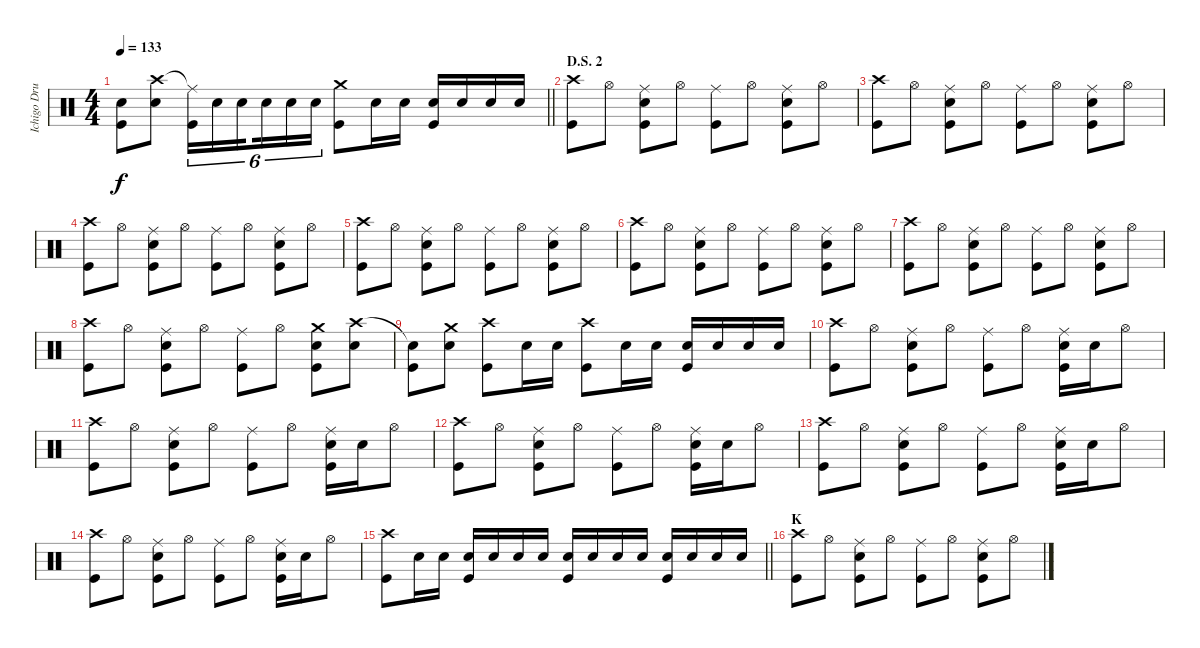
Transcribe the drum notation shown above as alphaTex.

\track ("Ichigo Drums" "Ichigo Dru") {instrument percussion}
\staff {score}
\articulation defaults
\ts (4 4)
\tempo 133
\clef neutral
\barLineRight lightlight
\ks c
("Snare (hit)"{t} "Kick (hit)").8{dy f} ("Crash high (hit)" "Snare (hit) 2").8 ("Ride (middle)"{t} "Kick (hit)").16{tu (6 4)} "Snare (hit) 2".16{tu (6 4)} "Snare (hit) 2".16{tu (6 4) beam splitsecondary} "Snare (hit) 2".16{tu (6 4)} "Snare (hit) 2".16{tu (6 4)} "Snare (hit) 2".16{tu (6 4)} ("Crash medium (hit)" "Kick (hit)").8 "Snare (hit) 2".16 "Snare (hit) 2".16 ("Snare (hit) 2" "Kick (hit)").16 "Snare (hit) 2".16 "Snare (hit) 2".16 "Snare (hit) 2".16 |
\section ("" "D.S. 2")
("Crash high (hit)" "Kick (hit)").8 "Hi-Hat (open)".8 ("Ride (middle)" "Snare (hit) 2" "Kick (hit)").8 "Hi-Hat (open)".8 ("Ride (middle)" "Kick (hit)").8 "Hi-Hat (open)".8 ("Ride (middle)" "Snare (hit) 2" "Kick (hit)").8 "Hi-Hat (open)".8 |
("Crash high (hit)" "Kick (hit)").8 "Hi-Hat (open)".8 ("Ride (middle)" "Snare (hit) 2" "Kick (hit)").8 "Hi-Hat (open)".8 ("Ride (middle)" "Kick (hit)").8 "Hi-Hat (open)".8 ("Ride (middle)" "Snare (hit) 2" "Kick (hit)").8 "Hi-Hat (open)".8 |
("Crash high (hit)" "Kick (hit)").8 "Hi-Hat (open)".8 ("Ride (middle)" "Snare (hit) 2" "Kick (hit)").8 "Hi-Hat (open)".8 ("Ride (middle)" "Kick (hit)").8 "Hi-Hat (open)".8 ("Ride (middle)" "Snare (hit) 2" "Kick (hit)").8 "Hi-Hat (open)".8 |
("Crash high (hit)" "Kick (hit)").8 "Hi-Hat (open)".8 ("Ride (middle)" "Snare (hit) 2" "Kick (hit)").8 "Hi-Hat (open)".8 ("Ride (middle)" "Kick (hit)").8 "Hi-Hat (open)".8 ("Ride (middle)" "Snare (hit) 2" "Kick (hit)").8 "Hi-Hat (open)".8 |
("Crash high (hit)" "Kick (hit)").8 "Hi-Hat (open)".8 ("Ride (middle)" "Snare (hit) 2" "Kick (hit)").8 "Hi-Hat (open)".8 ("Ride (middle)" "Kick (hit)").8 "Hi-Hat (open)".8 ("Ride (middle)" "Snare (hit) 2" "Kick (hit)").8 "Hi-Hat (open)".8 |
("Crash high (hit)" "Kick (hit)").8 "Hi-Hat (open)".8 ("Ride (middle)" "Snare (hit) 2" "Kick (hit)").8 "Hi-Hat (open)".8 ("Ride (middle)" "Kick (hit)").8 "Hi-Hat (open)".8 ("Ride (middle)" "Snare (hit) 2" "Kick (hit)").8 "Hi-Hat (open)".8 |
("Crash high (hit)" "Kick (hit)").8 "Hi-Hat (open)".8 ("Ride (middle)" "Snare (hit) 2" "Kick (hit)").8 "Hi-Hat (open)".8 ("Ride (middle)" "Kick (hit)").8 "Hi-Hat (open)".8 ("Crash medium (hit)" "Snare (hit) 2" "Kick (hit)").8 ("Crash high (hit)" "Snare (hit) 2").8 |
("Snare (hit)"{t} "Kick (hit)").8 ("Crash medium (hit)" "Snare (hit) 2").8 ("Crash high (hit)" "Kick (hit)").8 "Snare (hit) 2".16 "Snare (hit) 2".16 ("Crash high (hit)" "Kick (hit)").8 "Snare (hit) 2".16 "Snare (hit) 2".16 ("Snare (hit) 2" "Kick (hit)").16 "Snare (hit) 2".16 "Snare (hit) 2".16 "Snare (hit) 2".16 |
("Crash high (hit)" "Kick (hit)").8 "Hi-Hat (open)".8 ("Ride (middle)" "Snare (hit) 2" "Kick (hit)").8 "Hi-Hat (open)".8 ("Ride (middle)" "Kick (hit)").8 "Hi-Hat (open)".8 ("Ride (middle)" "Snare (hit) 2" "Kick (hit)").16 "Snare (hit) 2".16 "Hi-Hat (open)".8 |
("Crash high (hit)" "Kick (hit)").8 "Hi-Hat (open)".8 ("Ride (middle)" "Snare (hit) 2" "Kick (hit)").8 "Hi-Hat (open)".8 ("Ride (middle)" "Kick (hit)").8 "Hi-Hat (open)".8 ("Ride (middle)" "Snare (hit) 2" "Kick (hit)").16 "Snare (hit) 2".16 "Hi-Hat (open)".8 |
("Crash high (hit)" "Kick (hit)").8 "Hi-Hat (open)".8 ("Ride (middle)" "Snare (hit) 2" "Kick (hit)").8 "Hi-Hat (open)".8 ("Ride (middle)" "Kick (hit)").8 "Hi-Hat (open)".8 ("Ride (middle)" "Snare (hit) 2" "Kick (hit)").16 "Snare (hit) 2".16 "Hi-Hat (open)".8 |
("Crash high (hit)" "Kick (hit)").8 "Hi-Hat (open)".8 ("Ride (middle)" "Snare (hit) 2" "Kick (hit)").8 "Hi-Hat (open)".8 ("Ride (middle)" "Kick (hit)").8 "Hi-Hat (open)".8 ("Ride (middle)" "Snare (hit) 2" "Kick (hit)").16 "Snare (hit) 2".16 "Hi-Hat (open)".8 |
("Crash high (hit)" "Kick (hit)").8 "Hi-Hat (open)".8 ("Ride (middle)" "Snare (hit) 2" "Kick (hit)").8 "Hi-Hat (open)".8 ("Ride (middle)" "Kick (hit)").8 "Hi-Hat (open)".8 ("Ride (middle)" "Snare (hit) 2" "Kick (hit)").16 "Snare (hit) 2".16 "Hi-Hat (open)".8 |
\barLineRight lightlight
("Crash high (hit)" "Kick (hit)").8 "Snare (hit) 2".16 "Snare (hit) 2".16 ("Snare (hit) 2" "Kick (hit)").16 "Snare (hit) 2".16 "Snare (hit) 2".16 "Snare (hit) 2".16 ("Snare (hit) 2" "Kick (hit)").16 "Snare (hit) 2".16 "Snare (hit) 2".16 "Snare (hit) 2".16 ("Snare (hit) 2" "Kick (hit)").16 "Snare (hit) 2".16 "Snare (hit) 2".16 "Snare (hit) 2".16 |
\section ("" "K")
("Crash high (hit)" "Kick (hit)").8 "Hi-Hat (open)".8 ("Ride (middle)" "Snare (hit) 2" "Kick (hit)").8 "Hi-Hat (open)".8 ("Ride (middle)" "Kick (hit)").8 "Hi-Hat (open)".8 ("Ride (middle)" "Snare (hit) 2" "Kick (hit)").8 "Hi-Hat (open)".8
